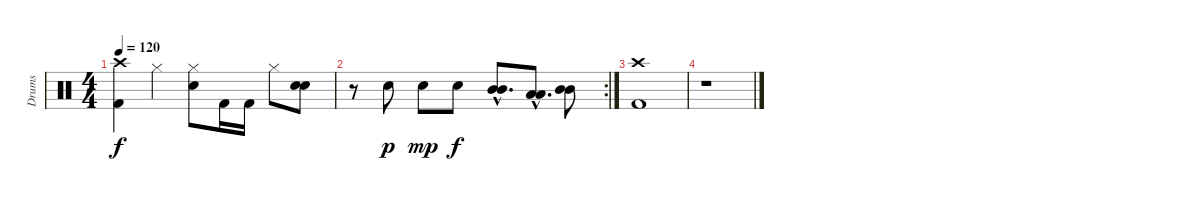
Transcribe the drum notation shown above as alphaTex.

\track ("Drums" "Drums") {instrument percussion}
\staff {score}
\articulation defaults
\ts (4 4)
\tempo 120
\clef neutral
\ks c
("Crash high (hit)" "Kick (hit) 2").4{dy f} "Hi-Hat (closed)".4 ("Hi-Hat (closed)" "Electric Snare (hit)").8 "Kick (hit) 2".16 "Kick (hit) 2".16 "Hi-Hat (closed)".8 ("Electric Snare (hit)" "Electric Snare (hit)").8{bd 240} |
\rc 2
r.8 "Electric Snare (hit)".8{dy p} "Electric Snare (hit)".8{dy mp} "Electric Snare (hit)".8{dy f} ("Mid Tom (hit)"{hac} "Mid Tom (hit)"{hac}).8{d bd 240} ("Low Tom (hit)"{hac} "Low Tom (hit)"{hac}).8{d bd 240} ("Mid Tom (hit)" "Mid Tom (hit)").8{bd 240} |
("Crash high (hit)" "Kick (hit) 2").1 |
r.1
